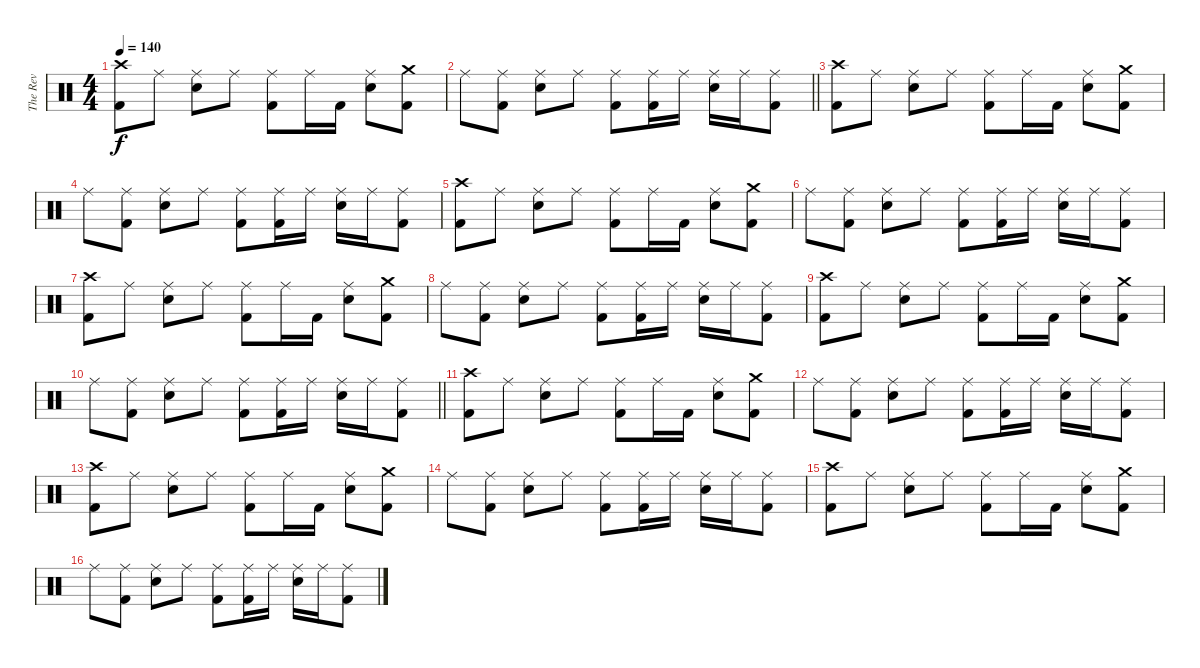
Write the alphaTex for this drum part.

\track ("The Rev" "The Rev") {instrument percussion}
\staff {score}
\articulation defaults
\ts (4 4)
\tempo 140
\clef neutral
\ks c
("Crash high (hit)" "Kick (hit) 2").8{dy f} "Ride (middle)".8 ("Ride (middle)" "Electric Snare (hit)").8 "Ride (middle)".8 ("Ride (middle)" "Kick (hit) 2").8 "Ride (middle)".16 "Kick (hit) 2".16 ("Ride (middle)" "Electric Snare (hit)").8 ("Crash medium (hit)" "Kick (hit) 2").8 |
\barLineRight lightlight "Ride (middle)".8
("Ride (middle)" "Kick (hit) 2").8 ("Ride (middle)" "Electric Snare (hit)").8 "Ride (middle)".8 ("Ride (middle)" "Kick (hit) 2").8 ("Ride (middle)" "Kick (hit) 2").16 "Ride (middle)".16 ("Ride (middle)" "Electric Snare (hit)").16 "Ride (middle)".16 ("Ride (middle)" "Kick (hit) 2").8 |
\section ("" " ")
("Crash high (hit)" "Kick (hit) 2").8 "Ride (middle)".8 ("Ride (middle)" "Electric Snare (hit)").8 "Ride (middle)".8 ("Ride (middle)" "Kick (hit) 2").8 "Ride (middle)".16 "Kick (hit) 2".16 ("Ride (middle)" "Electric Snare (hit)").8 ("Crash medium (hit)" "Kick (hit) 2").8 |
"Ride (middle)".8 ("Ride (middle)" "Kick (hit) 2").8 ("Ride (middle)" "Electric Snare (hit)").8 "Ride (middle)".8 ("Ride (middle)" "Kick (hit) 2").8 ("Ride (middle)" "Kick (hit) 2").16 "Ride (middle)".16 ("Ride (middle)" "Electric Snare (hit)").16 "Ride (middle)".16 ("Ride (middle)" "Kick (hit) 2").8 |
("Crash high (hit)" "Kick (hit) 2").8 "Ride (middle)".8 ("Ride (middle)" "Electric Snare (hit)").8 "Ride (middle)".8 ("Ride (middle)" "Kick (hit) 2").8 "Ride (middle)".16 "Kick (hit) 2".16 ("Ride (middle)" "Electric Snare (hit)").8 ("Crash medium (hit)" "Kick (hit) 2").8 |
"Ride (middle)".8 ("Ride (middle)" "Kick (hit) 2").8 ("Ride (middle)" "Electric Snare (hit)").8 "Ride (middle)".8 ("Ride (middle)" "Kick (hit) 2").8 ("Ride (middle)" "Kick (hit) 2").16 "Ride (middle)".16 ("Ride (middle)" "Electric Snare (hit)").16 "Ride (middle)".16 ("Ride (middle)" "Kick (hit) 2").8 |
("Crash high (hit)" "Kick (hit) 2").8 "Ride (middle)".8 ("Ride (middle)" "Electric Snare (hit)").8 "Ride (middle)".8 ("Ride (middle)" "Kick (hit) 2").8 "Ride (middle)".16 "Kick (hit) 2".16 ("Ride (middle)" "Electric Snare (hit)").8 ("Crash medium (hit)" "Kick (hit) 2").8 |
"Ride (middle)".8 ("Ride (middle)" "Kick (hit) 2").8 ("Ride (middle)" "Electric Snare (hit)").8 "Ride (middle)".8 ("Ride (middle)" "Kick (hit) 2").8 ("Ride (middle)" "Kick (hit) 2").16 "Ride (middle)".16 ("Ride (middle)" "Electric Snare (hit)").16 "Ride (middle)".16 ("Ride (middle)" "Kick (hit) 2").8 |
("Crash high (hit)" "Kick (hit) 2").8 "Ride (middle)".8 ("Ride (middle)" "Electric Snare (hit)").8 "Ride (middle)".8 ("Ride (middle)" "Kick (hit) 2").8 "Ride (middle)".16 "Kick (hit) 2".16 ("Ride (middle)" "Electric Snare (hit)").8 ("Crash medium (hit)" "Kick (hit) 2").8 |
\barLineRight lightlight "Ride (middle)".8
("Ride (middle)" "Kick (hit) 2").8 ("Ride (middle)" "Electric Snare (hit)").8 "Ride (middle)".8 ("Ride (middle)" "Kick (hit) 2").8 ("Ride (middle)" "Kick (hit) 2").16 "Ride (middle)".16 ("Ride (middle)" "Electric Snare (hit)").16 "Ride (middle)".16 ("Ride (middle)" "Kick (hit) 2").8 |
\section ("" " ")
("Crash high (hit)" "Kick (hit) 2").8 "Ride (middle)".8 ("Ride (middle)" "Electric Snare (hit)").8 "Ride (middle)".8 ("Ride (middle)" "Kick (hit) 2").8 "Ride (middle)".16 "Kick (hit) 2".16 ("Ride (middle)" "Electric Snare (hit)").8 ("Crash medium (hit)" "Kick (hit) 2").8 |
"Ride (middle)".8 ("Ride (middle)" "Kick (hit) 2").8 ("Ride (middle)" "Electric Snare (hit)").8 "Ride (middle)".8 ("Ride (middle)" "Kick (hit) 2").8 ("Ride (middle)" "Kick (hit) 2").16 "Ride (middle)".16 ("Ride (middle)" "Electric Snare (hit)").16 "Ride (middle)".16 ("Ride (middle)" "Kick (hit) 2").8 |
("Crash high (hit)" "Kick (hit) 2").8 "Ride (middle)".8 ("Ride (middle)" "Electric Snare (hit)").8 "Ride (middle)".8 ("Ride (middle)" "Kick (hit) 2").8 "Ride (middle)".16 "Kick (hit) 2".16 ("Ride (middle)" "Electric Snare (hit)").8 ("Crash medium (hit)" "Kick (hit) 2").8 |
"Ride (middle)".8 ("Ride (middle)" "Kick (hit) 2").8 ("Ride (middle)" "Electric Snare (hit)").8 "Ride (middle)".8 ("Ride (middle)" "Kick (hit) 2").8 ("Ride (middle)" "Kick (hit) 2").16 "Ride (middle)".16 ("Ride (middle)" "Electric Snare (hit)").16 "Ride (middle)".16 ("Ride (middle)" "Kick (hit) 2").8 |
("Crash high (hit)" "Kick (hit) 2").8 "Ride (middle)".8 ("Ride (middle)" "Electric Snare (hit)").8 "Ride (middle)".8 ("Ride (middle)" "Kick (hit) 2").8 "Ride (middle)".16 "Kick (hit) 2".16 ("Ride (middle)" "Electric Snare (hit)").8 ("Crash medium (hit)" "Kick (hit) 2").8 |
"Ride (middle)".8 ("Ride (middle)" "Kick (hit) 2").8 ("Ride (middle)" "Electric Snare (hit)").8 "Ride (middle)".8 ("Ride (middle)" "Kick (hit) 2").8 ("Ride (middle)" "Kick (hit) 2").16 "Ride (middle)".16 ("Ride (middle)" "Electric Snare (hit)").16 "Ride (middle)".16 ("Ride (middle)" "Kick (hit) 2").8
